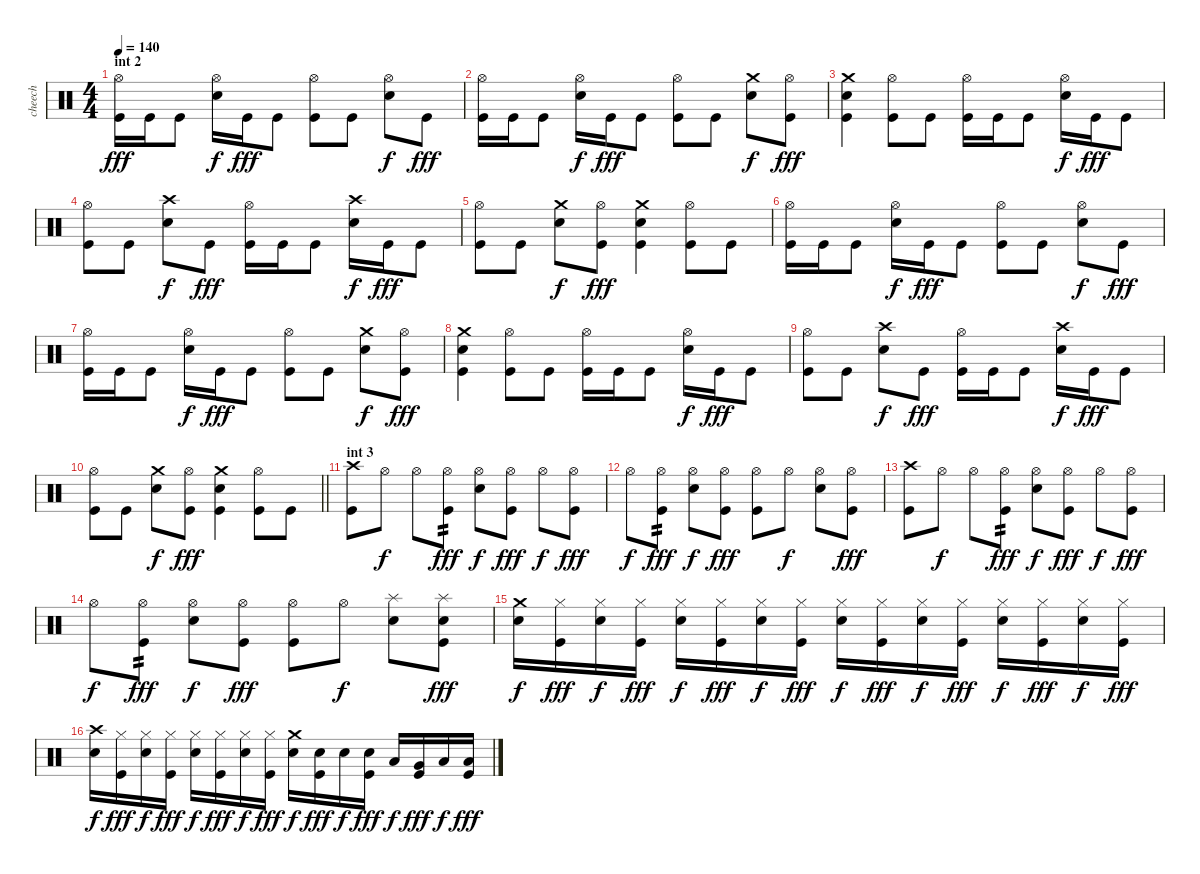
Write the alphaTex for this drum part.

\track ("cheech" "cheech") {solo instrument percussion}
\staff {score}
\articulation defaults
\ts (4 4)
\section ("" "int 2")
\tempo 140
\clef neutral
\ks c
("Hi-Hat (open)" "Kick (hit)").16{dy fff} "Kick (hit)".16 "Kick (hit)".8 ("Hi-Hat (open)" "Electric Snare (hit)").16{dy f} "Kick (hit)".16{dy fff} "Kick (hit)".8 ("Hi-Hat (open)" "Kick (hit)").8 "Kick (hit)".8 ("Hi-Hat (open)" "Electric Snare (hit)").8{dy f} "Kick (hit)".8{dy fff} |
("Hi-Hat (open)" "Kick (hit)").16 "Kick (hit)".16 "Kick (hit)".8 ("Hi-Hat (open)" "Electric Snare (hit)").16{dy f} "Kick (hit)".16{dy fff} "Kick (hit)".8 ("Hi-Hat (open)" "Kick (hit)").8 "Kick (hit)".8 ("Crash medium (hit)" "Electric Snare (hit)").8{dy f} ("Hi-Hat (open)" "Kick (hit)").8{dy fff} |
("Crash medium (hit)" "Electric Snare (hit)" "Kick (hit)").4 ("Hi-Hat (open)" "Kick (hit)").8 "Kick (hit)".8 ("Hi-Hat (open)" "Kick (hit)").16 "Kick (hit)".16 "Kick (hit)".8 ("Hi-Hat (open)" "Electric Snare (hit)").16{dy f} "Kick (hit)".16{dy fff} "Kick (hit)".8 |
("Hi-Hat (open)" "Kick (hit)").8 "Kick (hit)".8 ("Crash high (hit)" "Electric Snare (hit)").8{dy f} "Kick (hit)".8{dy fff} ("Hi-Hat (open)" "Kick (hit)").16 "Kick (hit)".16 "Kick (hit)".8 ("Crash high (hit)" "Electric Snare (hit)").16{dy f} "Kick (hit)".16{dy fff} "Kick (hit)".8 |
("Hi-Hat (open)" "Kick (hit)").8 "Kick (hit)".8 ("Crash medium (hit)" "Electric Snare (hit)").8{dy f} ("Hi-Hat (open)" "Kick (hit)").8{dy fff} ("Crash medium (hit)" "Electric Snare (hit)" "Kick (hit)").4 ("Hi-Hat (open)" "Kick (hit)").8 "Kick (hit)".8 |
("Hi-Hat (open)" "Kick (hit)").16 "Kick (hit)".16 "Kick (hit)".8 ("Hi-Hat (open)" "Electric Snare (hit)").16{dy f} "Kick (hit)".16{dy fff} "Kick (hit)".8 ("Hi-Hat (open)" "Kick (hit)").8 "Kick (hit)".8 ("Hi-Hat (open)" "Electric Snare (hit)").8{dy f} "Kick (hit)".8{dy fff} |
("Hi-Hat (open)" "Kick (hit)").16 "Kick (hit)".16 "Kick (hit)".8 ("Hi-Hat (open)" "Electric Snare (hit)").16{dy f} "Kick (hit)".16{dy fff} "Kick (hit)".8 ("Hi-Hat (open)" "Kick (hit)").8 "Kick (hit)".8 ("Crash medium (hit)" "Electric Snare (hit)").8{dy f} ("Hi-Hat (open)" "Kick (hit)").8{dy fff} |
("Crash medium (hit)" "Electric Snare (hit)" "Kick (hit)").4 ("Hi-Hat (open)" "Kick (hit)").8 "Kick (hit)".8 ("Hi-Hat (open)" "Kick (hit)").16 "Kick (hit)".16 "Kick (hit)".8 ("Hi-Hat (open)" "Electric Snare (hit)").16{dy f} "Kick (hit)".16{dy fff} "Kick (hit)".8 |
("Hi-Hat (open)" "Kick (hit)").8 "Kick (hit)".8 ("Crash high (hit)" "Electric Snare (hit)").8{dy f} "Kick (hit)".8{dy fff} ("Hi-Hat (open)" "Kick (hit)").16 "Kick (hit)".16 "Kick (hit)".8 ("Crash high (hit)" "Electric Snare (hit)").16{dy f} "Kick (hit)".16{dy fff} "Kick (hit)".8 |
\barLineRight lightlight
("Hi-Hat (open)" "Kick (hit)").8 "Kick (hit)".8 ("Crash medium (hit)" "Electric Snare (hit)").8{dy f} ("Hi-Hat (open)" "Kick (hit)").8{dy fff} ("Crash medium (hit)" "Electric Snare (hit)" "Kick (hit)").4 ("Hi-Hat (open)" "Kick (hit)").8 "Kick (hit)".8 |
\section ("" "int 3")
("Crash high (hit)" "Kick (hit)").8 "Hi-Hat (open)".8{dy f} "Hi-Hat (open)".8 ("Hi-Hat (open)" "Kick (hit)").8{tp 2 dy fff} ("Hi-Hat (open)" "Electric Snare (hit)").8{dy f} ("Hi-Hat (open)" "Kick (hit)").8{dy fff} "Hi-Hat (open)".8{dy f} ("Hi-Hat (open)" "Kick (hit)").8{dy fff} |
"Hi-Hat (open)".8{dy f} ("Hi-Hat (open)" "Kick (hit)").8{tp 2 dy fff} ("Hi-Hat (open)" "Electric Snare (hit)").8{dy f} ("Hi-Hat (open)" "Kick (hit)").8{dy fff} ("Hi-Hat (open)" "Kick (hit)").8 "Hi-Hat (open)".8{dy f} ("Hi-Hat (open)" "Electric Snare (hit)").8 ("Hi-Hat (open)" "Kick (hit)").8{dy fff} |
("Crash high (hit)" "Kick (hit)").8 "Hi-Hat (open)".8{dy f} "Hi-Hat (open)".8 ("Hi-Hat (open)" "Kick (hit)").8{tp 2 dy fff} ("Hi-Hat (open)" "Electric Snare (hit)").8{dy f} ("Hi-Hat (open)" "Kick (hit)").8{dy fff} "Hi-Hat (open)".8{dy f} ("Hi-Hat (open)" "Kick (hit)").8{dy fff} |
"Hi-Hat (open)".8{dy f} ("Hi-Hat (open)" "Kick (hit)").8{tp 2 dy fff} ("Hi-Hat (open)" "Electric Snare (hit)").8{dy f} ("Hi-Hat (open)" "Kick (hit)").8{dy fff} ("Hi-Hat (open)" "Kick (hit)").8 "Hi-Hat (open)".8{dy f} ("Splash (hit)" "Electric Snare (hit)").8 ("Splash (hit)" "Electric Snare (hit)" "Kick (hit)").8{dy fff} |
("Crash medium (hit)" "Electric Snare (hit)").16{dy f} ("Hi-Hat (closed)" "Kick (hit)").16{dy fff} ("Hi-Hat (closed)" "Electric Snare (hit)").16{dy f} ("Hi-Hat (closed)" "Kick (hit)").16{dy fff} ("Hi-Hat (closed)" "Electric Snare (hit)").16{dy f} ("Hi-Hat (closed)" "Kick (hit)").16{dy fff} ("Hi-Hat (closed)" "Electric Snare (hit)").16{dy f} ("Hi-Hat (closed)" "Kick (hit)").16{dy fff} ("Hi-Hat (closed)" "Electric Snare (hit)").16{dy f} ("Hi-Hat (closed)" "Kick (hit)").16{dy fff} ("Hi-Hat (closed)" "Electric Snare (hit)").16{dy f} ("Hi-Hat (closed)" "Kick (hit)").16{dy fff} ("Hi-Hat (closed)" "Electric Snare (hit)").16{dy f} ("Hi-Hat (closed)" "Kick (hit)").16{dy fff} ("Hi-Hat (closed)" "Electric Snare (hit)").16{dy f} ("Hi-Hat (closed)" "Kick (hit)").16{dy fff} |
("Crash high (hit)" "Electric Snare (hit)").16{dy f} ("Hi-Hat (closed)" "Kick (hit)").16{dy fff} ("Hi-Hat (closed)" "Electric Snare (hit)").16{dy f} ("Hi-Hat (closed)" "Kick (hit)").16{dy fff} ("Hi-Hat (closed)" "Electric Snare (hit)").16{dy f} ("Hi-Hat (closed)" "Kick (hit)").16{dy fff} ("Hi-Hat (closed)" "Electric Snare (hit)").16{dy f} ("Hi-Hat (closed)" "Kick (hit)").16{dy fff} ("Crash medium (hit)" "Electric Snare (hit)").16{dy f} ("Electric Snare (hit)" "Kick (hit)").16{dy fff} "Electric Snare (hit)".16{dy f} ("Electric Snare (hit)" "Kick (hit)").16{dy fff} "Low Tom (hit)".16{dy f} ("Very Low Tom (hit)" "Kick (hit)").16{dy fff} "Low Floor Tom (hit)".16{dy f} ("Low Floor Tom (hit)" "Kick (hit)").16{dy fff}
